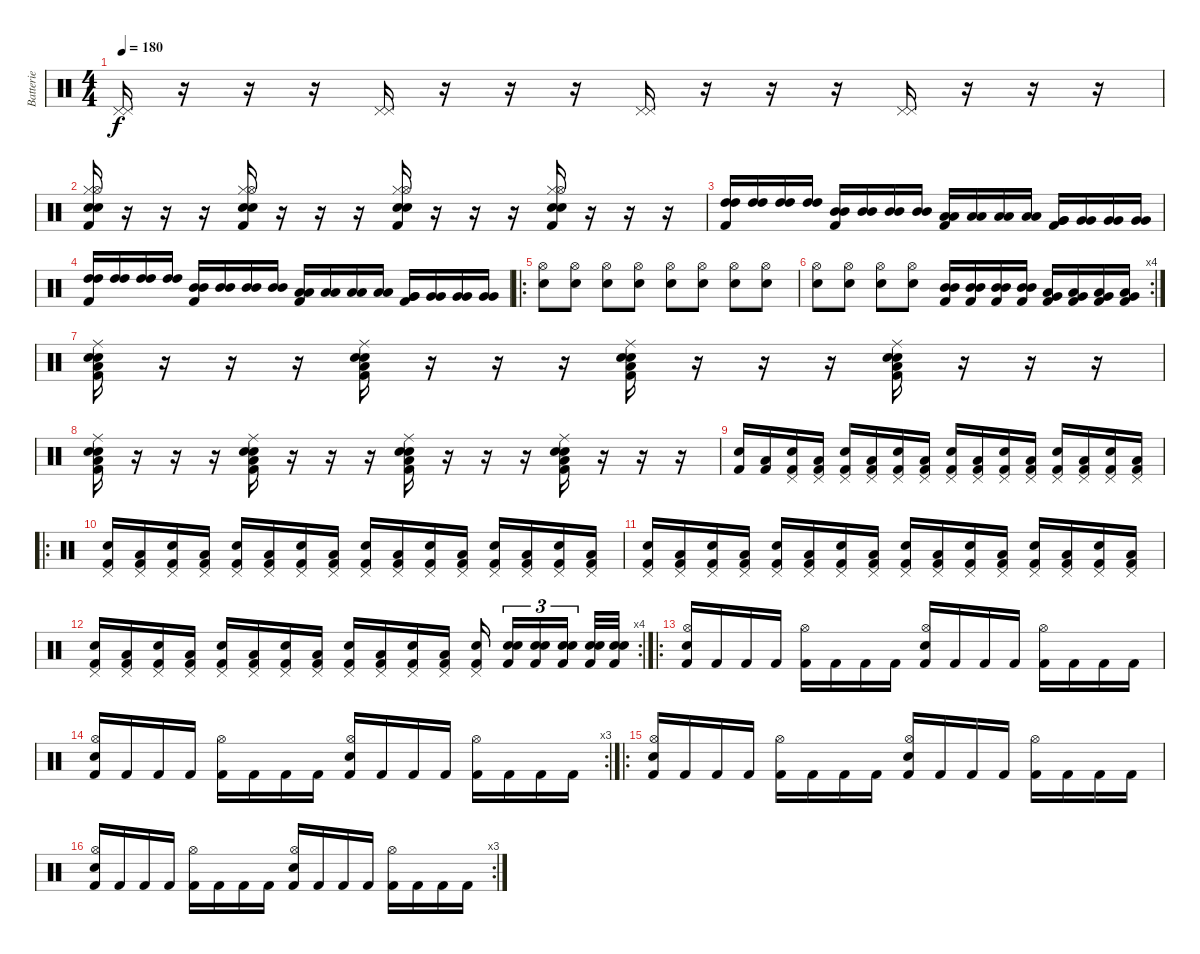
\track ("Batterie" "Batterie") {instrument percussion}
\staff {score}
\articulation defaults
\ts (4 4)
\tempo 180
\clef neutral
\ks c
("Pedal Hi-Hat (hit)" "Pedal Hi-Hat (hit)").16{dy f} r.16 r.16 r.16 ("Pedal Hi-Hat (hit)" "Pedal Hi-Hat (hit)").16 r.16 r.16 r.16 ("Pedal Hi-Hat (hit)" "Pedal Hi-Hat (hit)").16 r.16 r.16 r.16 ("Pedal Hi-Hat (hit)" "Pedal Hi-Hat (hit)").16 r.16 r.16 r.16 |
("Electric Snare (hit)" "Electric Snare (hit)" "Hi-Hat (closed)" "Hi-Hat (open)" "Kick (hit) 2").16 r.16 r.16 r.16 ("Electric Snare (hit)" "Electric Snare (hit)" "Hi-Hat (closed)" "Hi-Hat (open)" "Kick (hit) 2").16 r.16 r.16 r.16 ("Electric Snare (hit)" "Electric Snare (hit)" "Hi-Hat (closed)" "Hi-Hat (open)" "Kick (hit) 2").16 r.16 r.16 r.16 ("Electric Snare (hit)" "Electric Snare (hit)" "Hi-Hat (closed)" "Hi-Hat (open)" "Kick (hit) 2").16 r.16 r.16 r.16 |
("High Tom (hit)" "High Tom (hit)" "Kick (hit) 2").16 ("High Tom (hit)" "High Tom (hit)").16 ("High Tom (hit)" "High Tom (hit)").16 ("High Tom (hit)" "High Tom (hit)").16 ("Mid Tom (hit)" "Mid Tom (hit)" "Kick (hit) 2").16 ("Mid Tom (hit)" "Mid Tom (hit)").16 ("Mid Tom (hit)" "Mid Tom (hit)").16 ("Mid Tom (hit)" "Mid Tom (hit)").16 ("Low Tom (hit)" "Low Tom (hit)" "Kick (hit) 2").16 ("Low Tom (hit)" "Low Tom (hit)").16 ("Low Tom (hit)" "Low Tom (hit)").16 ("Low Tom (hit)" "Low Tom (hit)").16 ("Very Low Tom (hit)" "Very Low Tom (hit)" "Kick (hit) 2").16 ("Very Low Tom (hit)" "Very Low Tom (hit)").16 ("Very Low Tom (hit)" "Very Low Tom (hit)").16 ("Very Low Tom (hit)" "Very Low Tom (hit)").16 |
("High Tom (hit)" "High Tom (hit)" "Kick (hit) 2").16 ("High Tom (hit)" "High Tom (hit)").16 ("High Tom (hit)" "High Tom (hit)").16 ("High Tom (hit)" "High Tom (hit)").16 ("Mid Tom (hit)" "Mid Tom (hit)" "Kick (hit) 2").16 ("Mid Tom (hit)" "Mid Tom (hit)").16 ("Mid Tom (hit)" "Mid Tom (hit)").16 ("Mid Tom (hit)" "Mid Tom (hit)").16 ("Low Tom (hit)" "Low Tom (hit)" "Kick (hit) 2").16 ("Low Tom (hit)" "Low Tom (hit)").16 ("Low Tom (hit)" "Low Tom (hit)").16 ("Low Tom (hit)" "Low Tom (hit)").16 ("Very Low Tom (hit)" "Very Low Tom (hit)" "Kick (hit) 2").16 ("Very Low Tom (hit)" "Very Low Tom (hit)").16 ("Very Low Tom (hit)" "Very Low Tom (hit)").16 ("Very Low Tom (hit)" "Very Low Tom (hit)").16 |
\ro
("Electric Snare (hit)" "Hi-Hat (open)").8 ("Electric Snare (hit)" "Hi-Hat (open)").8 ("Electric Snare (hit)" "Hi-Hat (open)").8 ("Electric Snare (hit)" "Hi-Hat (open)").8 ("Electric Snare (hit)" "Hi-Hat (open)").8 ("Electric Snare (hit)" "Hi-Hat (open)").8 ("Electric Snare (hit)" "Hi-Hat (open)").8 ("Electric Snare (hit)" "Hi-Hat (open)").8 |
\rc 4
("Electric Snare (hit)" "Hi-Hat (open)").8 ("Electric Snare (hit)" "Hi-Hat (open)").8 ("Electric Snare (hit)" "Hi-Hat (open)").8 ("Electric Snare (hit)" "Hi-Hat (open)").8 ("Mid Tom (hit)" "Mid Tom (hit)" "Kick (hit) 2").16 ("Mid Tom (hit)" "Mid Tom (hit)" "Kick (hit) 2").16 ("Mid Tom (hit)" "Mid Tom (hit)" "Kick (hit) 2").16 ("Mid Tom (hit)" "Mid Tom (hit)" "Kick (hit) 2").16 ("Very Low Tom (hit)" "Low Tom (hit)" "Kick (hit) 2").16 ("Very Low Tom (hit)" "Low Tom (hit)" "Kick (hit) 2").16 ("Very Low Tom (hit)" "Low Tom (hit)" "Kick (hit) 2").16 ("Very Low Tom (hit)" "Low Tom (hit)" "Kick (hit) 2").16 |
("Ride (middle)" "Electric Snare (hit)" "Snare (hit) 2" "Low Floor Tom (hit)" "Kick (hit) 2").16 r.16 r.16 r.16 ("Ride (middle)" "Electric Snare (hit)" "Snare (hit) 2" "Low Floor Tom (hit)" "Kick (hit) 2").16 r.16 r.16 r.16 ("Ride (middle)" "Electric Snare (hit)" "Snare (hit) 2" "Low Floor Tom (hit)" "Kick (hit) 2").16 r.16 r.16 r.16 ("Ride (middle)" "Electric Snare (hit)" "Snare (hit) 2" "Low Floor Tom (hit)" "Kick (hit) 2").16 r.16 r.16 r.16 |
("Ride (middle)" "Electric Snare (hit)" "Snare (hit) 2" "Low Floor Tom (hit)" "Kick (hit) 2").16 r.16 r.16 r.16 ("Ride (middle)" "Electric Snare (hit)" "Snare (hit) 2" "Low Floor Tom (hit)" "Kick (hit) 2").16 r.16 r.16 r.16 ("Ride (middle)" "Electric Snare (hit)" "Snare (hit) 2" "Low Floor Tom (hit)" "Kick (hit) 2").16 r.16 r.16 r.16 ("Ride (middle)" "Electric Snare (hit)" "Snare (hit) 2" "Low Floor Tom (hit)" "Kick (hit) 2").16 r.16 r.16 r.16 |
("Electric Snare (hit)" "Kick (hit) 2").16 ("Low Tom (hit)" "Kick (hit) 2").16 ("Pedal Hi-Hat (hit)" "Electric Snare (hit)" "Kick (hit) 2").16 ("Pedal Hi-Hat (hit)" "Low Tom (hit)" "Kick (hit) 2").16 ("Pedal Hi-Hat (hit)" "Electric Snare (hit)" "Kick (hit) 2").16 ("Pedal Hi-Hat (hit)" "Low Tom (hit)" "Kick (hit) 2").16 ("Pedal Hi-Hat (hit)" "Electric Snare (hit)" "Kick (hit) 2").16 ("Pedal Hi-Hat (hit)" "Low Tom (hit)" "Kick (hit) 2").16 ("Pedal Hi-Hat (hit)" "Electric Snare (hit)" "Kick (hit) 2").16 ("Pedal Hi-Hat (hit)" "Low Tom (hit)" "Kick (hit) 2").16 ("Pedal Hi-Hat (hit)" "Electric Snare (hit)" "Kick (hit) 2").16 ("Pedal Hi-Hat (hit)" "Low Tom (hit)" "Kick (hit) 2").16 ("Pedal Hi-Hat (hit)" "Electric Snare (hit)" "Kick (hit) 2").16 ("Pedal Hi-Hat (hit)" "Low Tom (hit)" "Kick (hit) 2").16 ("Pedal Hi-Hat (hit)" "Electric Snare (hit)" "Kick (hit) 2").16 ("Pedal Hi-Hat (hit)" "Low Tom (hit)" "Kick (hit) 2").16 |
\ro
("Pedal Hi-Hat (hit)" "Electric Snare (hit)" "Kick (hit) 2").16 ("Pedal Hi-Hat (hit)" "Low Tom (hit)" "Kick (hit) 2").16 ("Pedal Hi-Hat (hit)" "Electric Snare (hit)" "Kick (hit) 2").16 ("Pedal Hi-Hat (hit)" "Low Tom (hit)" "Kick (hit) 2").16 ("Pedal Hi-Hat (hit)" "Electric Snare (hit)" "Kick (hit) 2").16 ("Pedal Hi-Hat (hit)" "Low Tom (hit)" "Kick (hit) 2").16 ("Pedal Hi-Hat (hit)" "Electric Snare (hit)" "Kick (hit) 2").16 ("Pedal Hi-Hat (hit)" "Low Tom (hit)" "Kick (hit) 2").16 ("Pedal Hi-Hat (hit)" "Electric Snare (hit)" "Kick (hit) 2").16 ("Pedal Hi-Hat (hit)" "Low Tom (hit)" "Kick (hit) 2").16 ("Pedal Hi-Hat (hit)" "Electric Snare (hit)" "Kick (hit) 2").16 ("Pedal Hi-Hat (hit)" "Low Tom (hit)" "Kick (hit) 2").16 ("Pedal Hi-Hat (hit)" "Electric Snare (hit)" "Kick (hit) 2").16 ("Pedal Hi-Hat (hit)" "Low Tom (hit)" "Kick (hit) 2").16 ("Pedal Hi-Hat (hit)" "Electric Snare (hit)" "Kick (hit) 2").16 ("Pedal Hi-Hat (hit)" "Low Tom (hit)" "Kick (hit) 2").16 |
("Pedal Hi-Hat (hit)" "Electric Snare (hit)" "Kick (hit) 2").16 ("Pedal Hi-Hat (hit)" "Low Tom (hit)" "Kick (hit) 2").16 ("Pedal Hi-Hat (hit)" "Electric Snare (hit)" "Kick (hit) 2").16 ("Pedal Hi-Hat (hit)" "Low Tom (hit)" "Kick (hit) 2").16 ("Pedal Hi-Hat (hit)" "Electric Snare (hit)" "Kick (hit) 2").16 ("Pedal Hi-Hat (hit)" "Low Tom (hit)" "Kick (hit) 2").16 ("Pedal Hi-Hat (hit)" "Electric Snare (hit)" "Kick (hit) 2").16 ("Pedal Hi-Hat (hit)" "Low Tom (hit)" "Kick (hit) 2").16 ("Pedal Hi-Hat (hit)" "Electric Snare (hit)" "Kick (hit) 2").16 ("Pedal Hi-Hat (hit)" "Low Tom (hit)" "Kick (hit) 2").16 ("Pedal Hi-Hat (hit)" "Electric Snare (hit)" "Kick (hit) 2").16 ("Pedal Hi-Hat (hit)" "Low Tom (hit)" "Kick (hit) 2").16 ("Pedal Hi-Hat (hit)" "Electric Snare (hit)" "Kick (hit) 2").16 ("Pedal Hi-Hat (hit)" "Low Tom (hit)" "Kick (hit) 2").16 ("Pedal Hi-Hat (hit)" "Electric Snare (hit)" "Kick (hit) 2").16 ("Pedal Hi-Hat (hit)" "Low Tom (hit)" "Kick (hit) 2").16 |
\rc 4
("Pedal Hi-Hat (hit)" "Electric Snare (hit)" "Kick (hit) 2").16 ("Pedal Hi-Hat (hit)" "Low Tom (hit)" "Kick (hit) 2").16 ("Pedal Hi-Hat (hit)" "Electric Snare (hit)" "Kick (hit) 2").16 ("Pedal Hi-Hat (hit)" "Low Tom (hit)" "Kick (hit) 2").16 ("Pedal Hi-Hat (hit)" "Electric Snare (hit)" "Kick (hit) 2").16 ("Pedal Hi-Hat (hit)" "Low Tom (hit)" "Kick (hit) 2").16 ("Pedal Hi-Hat (hit)" "Electric Snare (hit)" "Kick (hit) 2").16 ("Pedal Hi-Hat (hit)" "Low Tom (hit)" "Kick (hit) 2").16 ("Pedal Hi-Hat (hit)" "Electric Snare (hit)" "Kick (hit) 2").16 ("Pedal Hi-Hat (hit)" "Low Tom (hit)" "Kick (hit) 2").16 ("Pedal Hi-Hat (hit)" "Electric Snare (hit)" "Kick (hit) 2").16 ("Pedal Hi-Hat (hit)" "Low Tom (hit)" "Kick (hit) 2").16 ("Pedal Hi-Hat (hit)" "Electric Snare (hit)" "Kick (hit) 2").16 ("Electric Snare (hit)" "Electric Snare (hit)" "Kick (hit) 2").16{tu (3 2)} ("Electric Snare (hit)" "Electric Snare (hit)" "Kick (hit) 2").16{tu (3 2)} ("Electric Snare (hit)" "Electric Snare (hit)" "Kick (hit) 2").16{tu (3 2)} ("Electric Snare (hit)" "Electric Snare (hit)" "Kick (hit) 2").32 ("Electric Snare (hit)" "Electric Snare (hit)" "Kick (hit) 2").32 |
\ro
("Hi-Hat (open)" "Electric Snare (hit)" "Kick (hit) 2").16 "Kick (hit) 2".16 "Kick (hit) 2".16 "Kick (hit) 2".16 ("Hi-Hat (open)" "Kick (hit) 2").16 "Kick (hit) 2".16 "Kick (hit) 2".16 "Kick (hit) 2".16 ("Hi-Hat (open)" "Electric Snare (hit)" "Kick (hit) 2").16 "Kick (hit) 2".16 "Kick (hit) 2".16 "Kick (hit) 2".16 ("Hi-Hat (open)" "Kick (hit) 2").16 "Kick (hit) 2".16 "Kick (hit) 2".16 "Kick (hit) 2".16 |
\rc 3
("Hi-Hat (open)" "Electric Snare (hit)" "Kick (hit) 2").16 "Kick (hit) 2".16 "Kick (hit) 2".16 "Kick (hit) 2".16 ("Hi-Hat (open)" "Kick (hit) 2").16 "Kick (hit) 2".16 "Kick (hit) 2".16 "Kick (hit) 2".16 ("Hi-Hat (open)" "Electric Snare (hit)" "Kick (hit) 2").16 "Kick (hit) 2".16 "Kick (hit) 2".16 "Kick (hit) 2".16 ("Hi-Hat (open)" "Kick (hit) 2").16 "Kick (hit) 2".16 "Kick (hit) 2".16 "Kick (hit) 2".16 |
\ro
("Hi-Hat (open)" "Electric Snare (hit)" "Kick (hit) 2").16 "Kick (hit) 2".16 "Kick (hit) 2".16 "Kick (hit) 2".16 ("Hi-Hat (open)" "Kick (hit) 2").16 "Kick (hit) 2".16 "Kick (hit) 2".16 "Kick (hit) 2".16 ("Hi-Hat (open)" "Electric Snare (hit)" "Kick (hit) 2").16 "Kick (hit) 2".16 "Kick (hit) 2".16 "Kick (hit) 2".16 ("Hi-Hat (open)" "Kick (hit) 2").16 "Kick (hit) 2".16 "Kick (hit) 2".16 "Kick (hit) 2".16 |
\rc 3
("Hi-Hat (open)" "Electric Snare (hit)" "Kick (hit) 2").16 "Kick (hit) 2".16 "Kick (hit) 2".16 "Kick (hit) 2".16 ("Hi-Hat (open)" "Kick (hit) 2").16 "Kick (hit) 2".16 "Kick (hit) 2".16 "Kick (hit) 2".16 ("Hi-Hat (open)" "Electric Snare (hit)" "Kick (hit) 2").16 "Kick (hit) 2".16 "Kick (hit) 2".16 "Kick (hit) 2".16 ("Hi-Hat (open)" "Kick (hit) 2").16 "Kick (hit) 2".16 "Kick (hit) 2".16 "Kick (hit) 2".16
